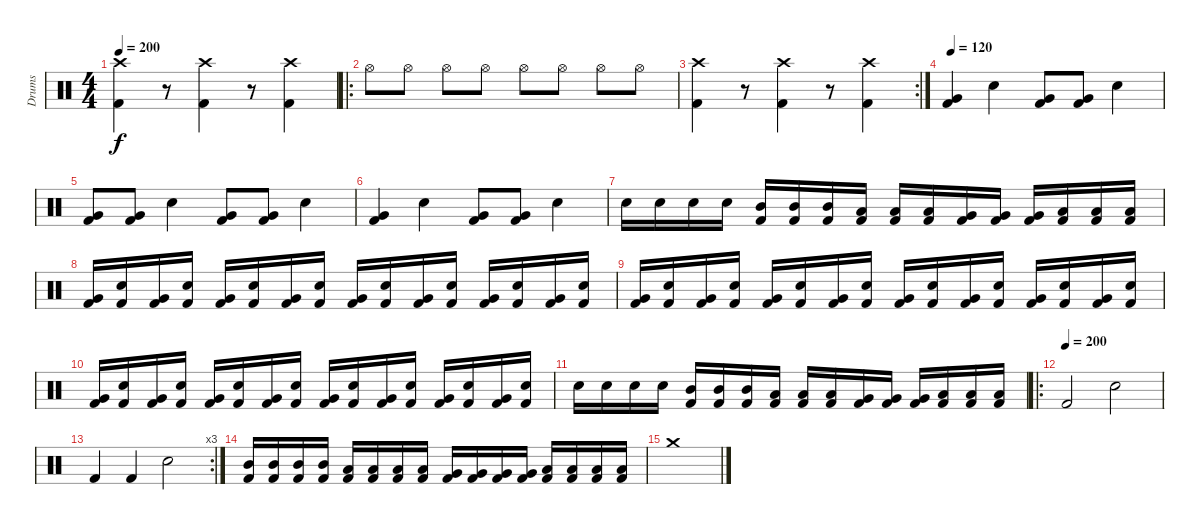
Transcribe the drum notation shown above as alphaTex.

\track ("Drums" "Drums") {instrument percussion}
\staff {score}
\articulation defaults
\ts (4 4)
\tempo 200
\clef neutral
\ks c
("Crash high (hit)" "Kick (hit) 2").4{dy f} r.8 ("Crash high (hit)" "Kick (hit) 2").4 r.8 ("Crash high (hit)" "Kick (hit) 2").4 |
\ro "Hi-Hat (open)".8 "Hi-Hat (open)".8 "Hi-Hat (open)".8 "Hi-Hat (open)".8 "Hi-Hat (open)".8 "Hi-Hat (open)".8 "Hi-Hat (open)".8 "Hi-Hat (open)".8
|
\rc 2
("Crash high (hit)" "Kick (hit) 2").4 r.8 ("Crash high (hit)" "Kick (hit) 2").4 r.8 ("Crash high (hit)" "Kick (hit) 2").4 |
\tempo 120
("Very Low Tom (hit)" "Kick (hit) 2").4 "Snare (hit) 2".4 ("Very Low Tom (hit)" "Kick (hit) 2").8 ("Very Low Tom (hit)" "Kick (hit) 2").8 "Snare (hit) 2".4 |
("Very Low Tom (hit)" "Kick (hit) 2").8 ("Very Low Tom (hit)" "Kick (hit) 2").8 "Snare (hit) 2".4 ("Very Low Tom (hit)" "Kick (hit) 2").8 ("Very Low Tom (hit)" "Kick (hit) 2").8 "Snare (hit) 2".4 |
("Very Low Tom (hit)" "Kick (hit) 2").4 "Snare (hit) 2".4 ("Very Low Tom (hit)" "Kick (hit) 2").8 ("Very Low Tom (hit)" "Kick (hit) 2").8 "Snare (hit) 2".4 |
"Snare (hit) 2".16 "Snare (hit) 2".16 "Snare (hit) 2".16 "Snare (hit) 2".16 ("Mid Tom (hit)" "Kick (hit) 2").16 ("Mid Tom (hit)" "Kick (hit) 2").16 ("Mid Tom (hit)" "Kick (hit) 2").16 ("Low Tom (hit)" "Kick (hit) 2").16 ("Low Tom (hit)" "Kick (hit) 2").16 ("Low Tom (hit)" "Kick (hit) 2").16 ("Very Low Tom (hit)" "Kick (hit) 2").16 ("Very Low Tom (hit)" "Kick (hit) 2").16 ("Very Low Tom (hit)" "Kick (hit) 2").16 ("Low Floor Tom (hit)" "Kick (hit) 2").16 ("Low Floor Tom (hit)" "Kick (hit) 2").16 ("Low Floor Tom (hit)" "Kick (hit) 2").16 |
("Very Low Tom (hit)" "Kick (hit) 2").16 ("Snare (hit) 2" "Kick (hit) 2").16 ("Very Low Tom (hit)" "Kick (hit) 2").16 ("Snare (hit) 2" "Kick (hit) 2").16 ("Very Low Tom (hit)" "Kick (hit) 2").16 ("Snare (hit) 2" "Kick (hit) 2").16 ("Very Low Tom (hit)" "Kick (hit) 2").16 ("Snare (hit) 2" "Kick (hit) 2").16 ("Very Low Tom (hit)" "Kick (hit) 2").16 ("Snare (hit) 2" "Kick (hit) 2").16 ("Very Low Tom (hit)" "Kick (hit) 2").16 ("Snare (hit) 2" "Kick (hit) 2").16 ("Very Low Tom (hit)" "Kick (hit) 2").16 ("Snare (hit) 2" "Kick (hit) 2").16 ("Very Low Tom (hit)" "Kick (hit) 2").16 ("Snare (hit) 2" "Kick (hit) 2").16 |
("Very Low Tom (hit)" "Kick (hit) 2").16 ("Snare (hit) 2" "Kick (hit) 2").16 ("Very Low Tom (hit)" "Kick (hit) 2").16 ("Snare (hit) 2" "Kick (hit) 2").16 ("Very Low Tom (hit)" "Kick (hit) 2").16 ("Snare (hit) 2" "Kick (hit) 2").16 ("Very Low Tom (hit)" "Kick (hit) 2").16 ("Snare (hit) 2" "Kick (hit) 2").16 ("Very Low Tom (hit)" "Kick (hit) 2").16 ("Snare (hit) 2" "Kick (hit) 2").16 ("Very Low Tom (hit)" "Kick (hit) 2").16 ("Snare (hit) 2" "Kick (hit) 2").16 ("Very Low Tom (hit)" "Kick (hit) 2").16 ("Snare (hit) 2" "Kick (hit) 2").16 ("Very Low Tom (hit)" "Kick (hit) 2").16 ("Snare (hit) 2" "Kick (hit) 2").16 |
("Very Low Tom (hit)" "Kick (hit) 2").16 ("Snare (hit) 2" "Kick (hit) 2").16 ("Very Low Tom (hit)" "Kick (hit) 2").16 ("Snare (hit) 2" "Kick (hit) 2").16 ("Very Low Tom (hit)" "Kick (hit) 2").16 ("Snare (hit) 2" "Kick (hit) 2").16 ("Very Low Tom (hit)" "Kick (hit) 2").16 ("Snare (hit) 2" "Kick (hit) 2").16 ("Very Low Tom (hit)" "Kick (hit) 2").16 ("Snare (hit) 2" "Kick (hit) 2").16 ("Very Low Tom (hit)" "Kick (hit) 2").16 ("Snare (hit) 2" "Kick (hit) 2").16 ("Very Low Tom (hit)" "Kick (hit) 2").16 ("Snare (hit) 2" "Kick (hit) 2").16 ("Very Low Tom (hit)" "Kick (hit) 2").16 ("Snare (hit) 2" "Kick (hit) 2").16 |
"Snare (hit) 2".16 "Snare (hit) 2".16 "Snare (hit) 2".16 "Snare (hit) 2".16 ("Mid Tom (hit)" "Kick (hit) 2").16 ("Mid Tom (hit)" "Kick (hit) 2").16 ("Mid Tom (hit)" "Kick (hit) 2").16 ("Low Tom (hit)" "Kick (hit) 2").16 ("Low Tom (hit)" "Kick (hit) 2").16 ("Low Tom (hit)" "Kick (hit) 2").16 ("Very Low Tom (hit)" "Kick (hit) 2").16 ("Very Low Tom (hit)" "Kick (hit) 2").16 ("Very Low Tom (hit)" "Kick (hit) 2").16 ("Low Floor Tom (hit)" "Kick (hit) 2").16 ("Low Floor Tom (hit)" "Kick (hit) 2").16 ("Low Floor Tom (hit)" "Kick (hit) 2").16 |
\ro
\tempo (200)
"Kick (hit) 2".2 "Snare (hit) 2".2 |
\rc 3 "Kick (hit) 2".4 "Kick (hit) 2".4 "Snare (hit) 2".2
|
("Mid Tom (hit)" "Kick (hit) 2").16 ("Mid Tom (hit)" "Kick (hit) 2").16 ("Mid Tom (hit)" "Kick (hit) 2").16 ("Mid Tom (hit)" "Kick (hit) 2").16 ("Low Tom (hit)" "Kick (hit) 2").16 ("Low Tom (hit)" "Kick (hit) 2").16 ("Low Tom (hit)" "Kick (hit) 2").16 ("Low Tom (hit)" "Kick (hit) 2").16 ("Very Low Tom (hit)" "Kick (hit) 2").16 ("Very Low Tom (hit)" "Kick (hit) 2").16 ("Very Low Tom (hit)" "Kick (hit) 2").16 ("Very Low Tom (hit)" "Kick (hit) 2").16 ("Low Floor Tom (hit)" "Kick (hit) 2").16 ("Low Floor Tom (hit)" "Kick (hit) 2").16 ("Low Floor Tom (hit)" "Kick (hit) 2").16 ("Low Floor Tom (hit)" "Kick (hit) 2").16 |
"Crash medium (hit)".1
